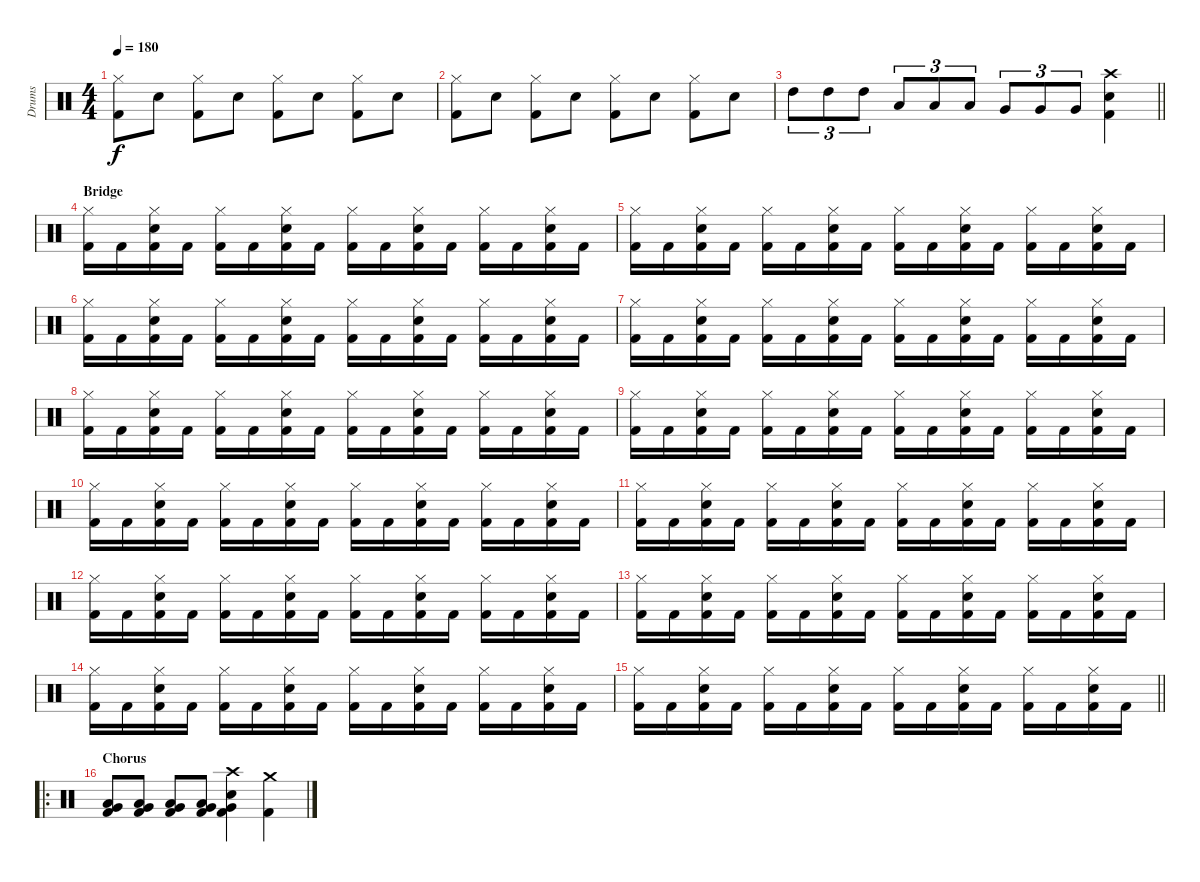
\track ("Drums" "Drums") {instrument percussion}
\staff {score}
\articulation defaults
\ts (4 4)
\tempo 180
\clef neutral
\ks c
("Hi-Hat (closed)" "Kick (hit) 2").8{dy f} "Electric Snare (hit)".8 ("Hi-Hat (closed)" "Kick (hit) 2").8 "Electric Snare (hit)".8 ("Hi-Hat (closed)" "Kick (hit) 2").8 "Electric Snare (hit)".8 ("Hi-Hat (closed)" "Kick (hit) 2").8 "Electric Snare (hit)".8 |
("Hi-Hat (closed)" "Kick (hit) 2").8 "Electric Snare (hit)".8 ("Hi-Hat (closed)" "Kick (hit) 2").8 "Electric Snare (hit)".8 ("Hi-Hat (closed)" "Kick (hit) 2").8 "Electric Snare (hit)".8 ("Hi-Hat (closed)" "Kick (hit) 2").8 "Electric Snare (hit)".8 |
\barLineRight lightlight "High Tom (hit)".8{tu (3 2)} "High Tom (hit)".8{tu (3 2)} "High Tom (hit)".8{tu (3 2)} "Low Tom (hit)".8{tu (3 2)} "Low Tom (hit)".8{tu (3 2)} "Low Tom (hit)".8{tu (3 2)} "Very Low Tom (hit)".8{tu (3 2)} "Very Low Tom (hit)".8{tu (3 2)} "Very Low Tom (hit)".8{tu (3 2)}
("Crash high (hit)" "Electric Snare (hit)" "Kick (hit) 2").4 |
\section ("" "Bridge")
("Hi-Hat (closed)" "Kick (hit) 2").16 "Kick (hit) 2".16 ("Hi-Hat (closed)" "Electric Snare (hit)" "Kick (hit) 2").16 "Kick (hit) 2".16 ("Hi-Hat (closed)" "Kick (hit) 2").16 "Kick (hit) 2".16 ("Hi-Hat (closed)" "Electric Snare (hit)" "Kick (hit) 2").16 "Kick (hit) 2".16 ("Hi-Hat (closed)" "Kick (hit) 2").16 "Kick (hit) 2".16 ("Hi-Hat (closed)" "Electric Snare (hit)" "Kick (hit) 2").16 "Kick (hit) 2".16 ("Hi-Hat (closed)" "Kick (hit) 2").16 "Kick (hit) 2".16 ("Hi-Hat (closed)" "Electric Snare (hit)" "Kick (hit) 2").16 "Kick (hit) 2".16 |
("Hi-Hat (closed)" "Kick (hit) 2").16 "Kick (hit) 2".16 ("Hi-Hat (closed)" "Electric Snare (hit)" "Kick (hit) 2").16 "Kick (hit) 2".16 ("Hi-Hat (closed)" "Kick (hit) 2").16 "Kick (hit) 2".16 ("Hi-Hat (closed)" "Electric Snare (hit)" "Kick (hit) 2").16 "Kick (hit) 2".16 ("Hi-Hat (closed)" "Kick (hit) 2").16 "Kick (hit) 2".16 ("Hi-Hat (closed)" "Electric Snare (hit)" "Kick (hit) 2").16 "Kick (hit) 2".16 ("Hi-Hat (closed)" "Kick (hit) 2").16 "Kick (hit) 2".16 ("Hi-Hat (closed)" "Electric Snare (hit)" "Kick (hit) 2").16 "Kick (hit) 2".16 |
("Hi-Hat (closed)" "Kick (hit) 2").16 "Kick (hit) 2".16 ("Hi-Hat (closed)" "Electric Snare (hit)" "Kick (hit) 2").16 "Kick (hit) 2".16 ("Hi-Hat (closed)" "Kick (hit) 2").16 "Kick (hit) 2".16 ("Hi-Hat (closed)" "Electric Snare (hit)" "Kick (hit) 2").16 "Kick (hit) 2".16 ("Hi-Hat (closed)" "Kick (hit) 2").16 "Kick (hit) 2".16 ("Hi-Hat (closed)" "Electric Snare (hit)" "Kick (hit) 2").16 "Kick (hit) 2".16 ("Hi-Hat (closed)" "Kick (hit) 2").16 "Kick (hit) 2".16 ("Hi-Hat (closed)" "Electric Snare (hit)" "Kick (hit) 2").16 "Kick (hit) 2".16 |
("Hi-Hat (closed)" "Kick (hit) 2").16 "Kick (hit) 2".16 ("Hi-Hat (closed)" "Electric Snare (hit)" "Kick (hit) 2").16 "Kick (hit) 2".16 ("Hi-Hat (closed)" "Kick (hit) 2").16 "Kick (hit) 2".16 ("Hi-Hat (closed)" "Electric Snare (hit)" "Kick (hit) 2").16 "Kick (hit) 2".16 ("Hi-Hat (closed)" "Kick (hit) 2").16 "Kick (hit) 2".16 ("Hi-Hat (closed)" "Electric Snare (hit)" "Kick (hit) 2").16 "Kick (hit) 2".16 ("Hi-Hat (closed)" "Kick (hit) 2").16 "Kick (hit) 2".16 ("Hi-Hat (closed)" "Electric Snare (hit)" "Kick (hit) 2").16 "Kick (hit) 2".16 |
("Hi-Hat (closed)" "Kick (hit) 2").16 "Kick (hit) 2".16 ("Hi-Hat (closed)" "Electric Snare (hit)" "Kick (hit) 2").16 "Kick (hit) 2".16 ("Hi-Hat (closed)" "Kick (hit) 2").16 "Kick (hit) 2".16 ("Hi-Hat (closed)" "Electric Snare (hit)" "Kick (hit) 2").16 "Kick (hit) 2".16 ("Hi-Hat (closed)" "Kick (hit) 2").16 "Kick (hit) 2".16 ("Hi-Hat (closed)" "Electric Snare (hit)" "Kick (hit) 2").16 "Kick (hit) 2".16 ("Hi-Hat (closed)" "Kick (hit) 2").16 "Kick (hit) 2".16 ("Hi-Hat (closed)" "Electric Snare (hit)" "Kick (hit) 2").16 "Kick (hit) 2".16 |
("Hi-Hat (closed)" "Kick (hit) 2").16 "Kick (hit) 2".16 ("Hi-Hat (closed)" "Electric Snare (hit)" "Kick (hit) 2").16 "Kick (hit) 2".16 ("Hi-Hat (closed)" "Kick (hit) 2").16 "Kick (hit) 2".16 ("Hi-Hat (closed)" "Electric Snare (hit)" "Kick (hit) 2").16 "Kick (hit) 2".16 ("Hi-Hat (closed)" "Kick (hit) 2").16 "Kick (hit) 2".16 ("Hi-Hat (closed)" "Electric Snare (hit)" "Kick (hit) 2").16 "Kick (hit) 2".16 ("Hi-Hat (closed)" "Kick (hit) 2").16 "Kick (hit) 2".16 ("Hi-Hat (closed)" "Electric Snare (hit)" "Kick (hit) 2").16 "Kick (hit) 2".16 |
("Hi-Hat (closed)" "Kick (hit) 2").16 "Kick (hit) 2".16 ("Hi-Hat (closed)" "Electric Snare (hit)" "Kick (hit) 2").16 "Kick (hit) 2".16 ("Hi-Hat (closed)" "Kick (hit) 2").16 "Kick (hit) 2".16 ("Hi-Hat (closed)" "Electric Snare (hit)" "Kick (hit) 2").16 "Kick (hit) 2".16 ("Hi-Hat (closed)" "Kick (hit) 2").16 "Kick (hit) 2".16 ("Hi-Hat (closed)" "Electric Snare (hit)" "Kick (hit) 2").16 "Kick (hit) 2".16 ("Hi-Hat (closed)" "Kick (hit) 2").16 "Kick (hit) 2".16 ("Hi-Hat (closed)" "Electric Snare (hit)" "Kick (hit) 2").16 "Kick (hit) 2".16 |
("Hi-Hat (closed)" "Kick (hit) 2").16 "Kick (hit) 2".16 ("Hi-Hat (closed)" "Electric Snare (hit)" "Kick (hit) 2").16 "Kick (hit) 2".16 ("Hi-Hat (closed)" "Kick (hit) 2").16 "Kick (hit) 2".16 ("Hi-Hat (closed)" "Electric Snare (hit)" "Kick (hit) 2").16 "Kick (hit) 2".16 ("Hi-Hat (closed)" "Kick (hit) 2").16 "Kick (hit) 2".16 ("Hi-Hat (closed)" "Electric Snare (hit)" "Kick (hit) 2").16 "Kick (hit) 2".16 ("Hi-Hat (closed)" "Kick (hit) 2").16 "Kick (hit) 2".16 ("Hi-Hat (closed)" "Electric Snare (hit)" "Kick (hit) 2").16 "Kick (hit) 2".16 |
("Hi-Hat (closed)" "Kick (hit) 2").16 "Kick (hit) 2".16 ("Hi-Hat (closed)" "Electric Snare (hit)" "Kick (hit) 2").16 "Kick (hit) 2".16 ("Hi-Hat (closed)" "Kick (hit) 2").16 "Kick (hit) 2".16 ("Hi-Hat (closed)" "Electric Snare (hit)" "Kick (hit) 2").16 "Kick (hit) 2".16 ("Hi-Hat (closed)" "Kick (hit) 2").16 "Kick (hit) 2".16 ("Hi-Hat (closed)" "Electric Snare (hit)" "Kick (hit) 2").16 "Kick (hit) 2".16 ("Hi-Hat (closed)" "Kick (hit) 2").16 "Kick (hit) 2".16 ("Hi-Hat (closed)" "Electric Snare (hit)" "Kick (hit) 2").16 "Kick (hit) 2".16 |
("Hi-Hat (closed)" "Kick (hit) 2").16 "Kick (hit) 2".16 ("Hi-Hat (closed)" "Electric Snare (hit)" "Kick (hit) 2").16 "Kick (hit) 2".16 ("Hi-Hat (closed)" "Kick (hit) 2").16 "Kick (hit) 2".16 ("Hi-Hat (closed)" "Electric Snare (hit)" "Kick (hit) 2").16 "Kick (hit) 2".16 ("Hi-Hat (closed)" "Kick (hit) 2").16 "Kick (hit) 2".16 ("Hi-Hat (closed)" "Electric Snare (hit)" "Kick (hit) 2").16 "Kick (hit) 2".16 ("Hi-Hat (closed)" "Kick (hit) 2").16 "Kick (hit) 2".16 ("Hi-Hat (closed)" "Electric Snare (hit)" "Kick (hit) 2").16 "Kick (hit) 2".16 |
("Hi-Hat (closed)" "Kick (hit) 2").16 "Kick (hit) 2".16 ("Hi-Hat (closed)" "Electric Snare (hit)" "Kick (hit) 2").16 "Kick (hit) 2".16 ("Hi-Hat (closed)" "Kick (hit) 2").16 "Kick (hit) 2".16 ("Hi-Hat (closed)" "Electric Snare (hit)" "Kick (hit) 2").16 "Kick (hit) 2".16 ("Hi-Hat (closed)" "Kick (hit) 2").16 "Kick (hit) 2".16 ("Hi-Hat (closed)" "Electric Snare (hit)" "Kick (hit) 2").16 "Kick (hit) 2".16 ("Hi-Hat (closed)" "Kick (hit) 2").16 "Kick (hit) 2".16 ("Hi-Hat (closed)" "Electric Snare (hit)" "Kick (hit) 2").16 "Kick (hit) 2".16 |
\barLineRight lightlight
("Hi-Hat (closed)" "Kick (hit) 2").16 "Kick (hit) 2".16 ("Hi-Hat (closed)" "Electric Snare (hit)" "Kick (hit) 2").16 "Kick (hit) 2".16 ("Hi-Hat (closed)" "Kick (hit) 2").16 "Kick (hit) 2".16 ("Hi-Hat (closed)" "Electric Snare (hit)" "Kick (hit) 2").16 "Kick (hit) 2".16 ("Hi-Hat (closed)" "Kick (hit) 2").16 "Kick (hit) 2".16 ("Hi-Hat (closed)" "Electric Snare (hit)" "Kick (hit) 2").16 "Kick (hit) 2".16 ("Hi-Hat (closed)" "Kick (hit) 2").16 "Kick (hit) 2".16 ("Hi-Hat (closed)" "Electric Snare (hit)" "Kick (hit) 2").16 "Kick (hit) 2".16 |
\ro
\section ("" "Chorus")
("Low Floor Tom (hit)" "Very Low Tom (hit)" "Kick (hit) 2").8 ("Low Floor Tom (hit)" "Very Low Tom (hit)" "Kick (hit) 2").8 ("Low Floor Tom (hit)" "Very Low Tom (hit)" "Kick (hit) 2").8 ("Low Floor Tom (hit)" "Very Low Tom (hit)" "Kick (hit) 2").8 ("Crash high (hit)" "Electric Snare (hit)" "Very Low Tom (hit)" "Kick (hit) 2").4 ("Crash medium (hit)" "Kick (hit) 2").4
